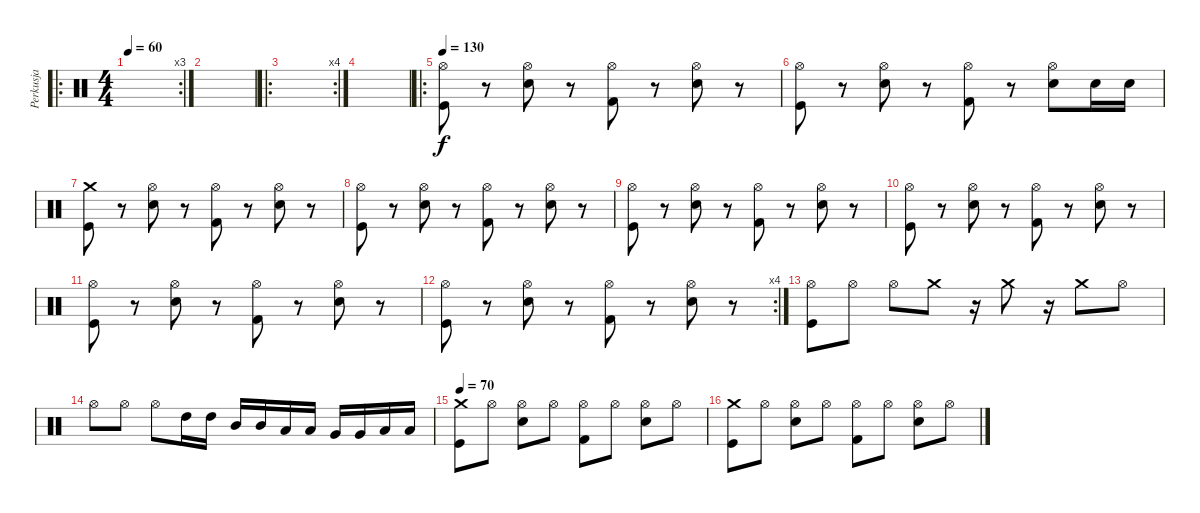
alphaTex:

\track ("Perkusja" "Perkusja") {instrument percussion}
\staff {score}
\articulation defaults
\ro
\rc 3
\ts (4 4)
\tempo 60
\clef neutral
\ks c
|
|
\ro
\rc 4
|
|
\ro
\tempo 130
("Hi-Hat (open)" "Kick (hit)").8 r.8 ("Hi-Hat (open)" "Snare (hit) 2").8 r.8 ("Hi-Hat (open)" "Kick (hit) 2").8 r.8 ("Hi-Hat (open)" "Snare (hit) 2").8 r.8 |
("Hi-Hat (open)" "Kick (hit)").8 r.8 ("Hi-Hat (open)" "Snare (hit) 2").8 r.8 ("Hi-Hat (open)" "Kick (hit) 2").8 r.8 ("Hi-Hat (open)" "Snare (hit) 2").8 "Snare (hit) 2".16 "Snare (hit) 2".16 |
("Crash medium (hit)" "Kick (hit)").8 r.8 ("Hi-Hat (open)" "Snare (hit) 2").8 r.8 ("Hi-Hat (open)" "Kick (hit) 2").8 r.8 ("Hi-Hat (open)" "Snare (hit) 2").8 r.8 |
("Hi-Hat (open)" "Kick (hit)").8 r.8 ("Hi-Hat (open)" "Snare (hit) 2").8 r.8 ("Hi-Hat (open)" "Kick (hit) 2").8 r.8 ("Hi-Hat (open)" "Snare (hit) 2").8 r.8 |
("Hi-Hat (open)" "Kick (hit)").8 r.8 ("Hi-Hat (open)" "Snare (hit) 2").8 r.8 ("Hi-Hat (open)" "Kick (hit) 2").8 r.8 ("Hi-Hat (open)" "Snare (hit) 2").8 r.8 |
("Hi-Hat (open)" "Kick (hit)").8 r.8 ("Hi-Hat (open)" "Snare (hit) 2").8 r.8 ("Hi-Hat (open)" "Kick (hit) 2").8 r.8 ("Hi-Hat (open)" "Snare (hit) 2").8 r.8 |
("Hi-Hat (open)" "Kick (hit)").8 r.8 ("Hi-Hat (open)" "Snare (hit) 2").8 r.8 ("Hi-Hat (open)" "Kick (hit) 2").8 r.8 ("Hi-Hat (open)" "Snare (hit) 2").8 r.8 |
\rc 4
("Hi-Hat (open)" "Kick (hit)").8 r.8 ("Hi-Hat (open)" "Snare (hit) 2").8 r.8 ("Hi-Hat (open)" "Kick (hit) 2").8 r.8 ("Hi-Hat (open)" "Snare (hit) 2").8 r.8 |
("Hi-Hat (open)" "Kick (hit)").8 "Hi-Hat (open)".8 "Hi-Hat (open)".8 "Crash medium (hit)".8 r.16 "Crash medium (hit)".8 r.16 "Crash medium (hit)".8 "Hi-Hat (open)".8 |
"Hi-Hat (open)".8 "Hi-Hat (open)".8 "Hi-Hat (open)".8 "High Tom (hit)".16 "High Tom (hit)".16 "Mid Tom (hit)".16 "Mid Tom (hit)".16 "Low Tom (hit)".16 "Low Tom (hit)".16 "Very Low Tom (hit)".16 "Very Low Tom (hit)".16 "Low Floor Tom (hit)".16 "Low Floor Tom (hit)".16 |
\tempo 70
("Crash medium (hit)" "Kick (hit)").8 "Hi-Hat (open)".8 ("Hi-Hat (open)" "Snare (hit) 2").8 "Hi-Hat (open)".8 ("Hi-Hat (open)" "Kick (hit) 2").8 "Hi-Hat (open)".8 ("Hi-Hat (open)" "Snare (hit) 2").8 "Hi-Hat (open)".8 |
("Crash medium (hit)" "Kick (hit)").8 "Hi-Hat (open)".8 ("Hi-Hat (open)" "Snare (hit) 2").8 "Hi-Hat (open)".8 ("Hi-Hat (open)" "Kick (hit) 2").8 "Hi-Hat (open)".8 ("Hi-Hat (open)" "Snare (hit) 2").8 "Hi-Hat (open)".8
